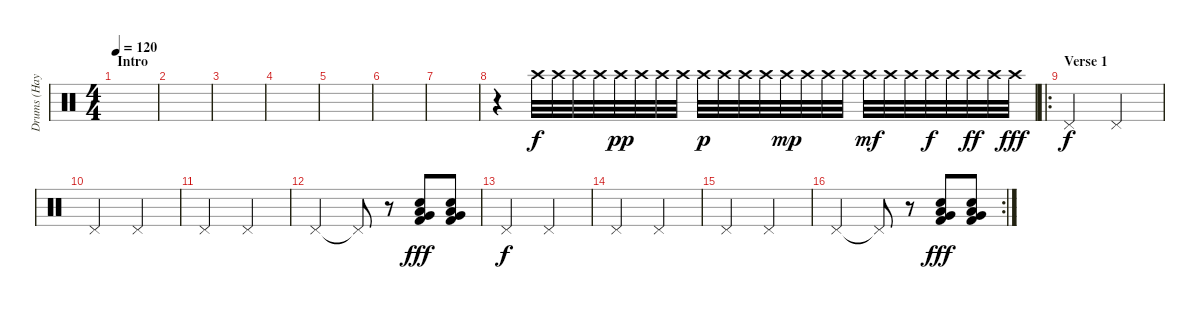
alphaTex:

\track ("Drums (Hayden)" "Drums (Hay") {instrument percussion}
\staff {score}
\articulation defaults
\ts (4 4)
\section ("" "Intro")
\tempo 120
\clef neutral
\ks c
|
|
|
|
|
|
|
r.4 "Crash high (hit)".32 "Crash high (hit)".32 "Crash high (hit)".32 "Crash high (hit)".32 "Crash high (hit)".32{dy pp} "Crash high (hit)".32 "Crash high (hit)".32 "Crash high (hit)".32 "Crash high (hit)".32{dy p} "Crash high (hit)".32 "Crash high (hit)".32 "Crash high (hit)".32 "Crash high (hit)".32{dy mp} "Crash high (hit)".32 "Crash high (hit)".32 "Crash high (hit)".32 "Crash high (hit)".32{dy mf} "Crash high (hit)".32 "Crash high (hit)".32 "Crash high (hit)".32{dy f} "Crash high (hit)".32 "Crash high (hit)".32{dy ff} "Crash high (hit)".32 "Crash high (hit)".32{dy fff} |
\ro
\section ("" "Verse 1")
"Pedal Hi-Hat (hit)".2{dy f} "Pedal Hi-Hat (hit)".2 |
"Pedal Hi-Hat (hit)".2 "Pedal Hi-Hat (hit)".2 |
"Pedal Hi-Hat (hit)".2 "Pedal Hi-Hat (hit)".2 |
"Pedal Hi-Hat (hit)".2 "Pedal Hi-Hat (hit)"{t}.8 r.8 ("Electric Snare (hit)" "Kick (hit) 2" "Low Floor Tom (hit)" "Very Low Tom (hit)").8{dy fff} ("Electric Snare (hit)" "Kick (hit) 2" "Low Floor Tom (hit)" "Very Low Tom (hit)").8 |
"Pedal Hi-Hat (hit)".2{dy f} "Pedal Hi-Hat (hit)".2 |
"Pedal Hi-Hat (hit)".2 "Pedal Hi-Hat (hit)".2 |
"Pedal Hi-Hat (hit)".2 "Pedal Hi-Hat (hit)".2 |
\rc 2 "Pedal Hi-Hat (hit)".2 "Pedal Hi-Hat (hit)"{t}.8
r.8 ("Electric Snare (hit)" "Kick (hit) 2" "Low Floor Tom (hit)" "Very Low Tom (hit)").8{dy fff} ("Electric Snare (hit)" "Kick (hit) 2" "Low Floor Tom (hit)" "Very Low Tom (hit)").8
